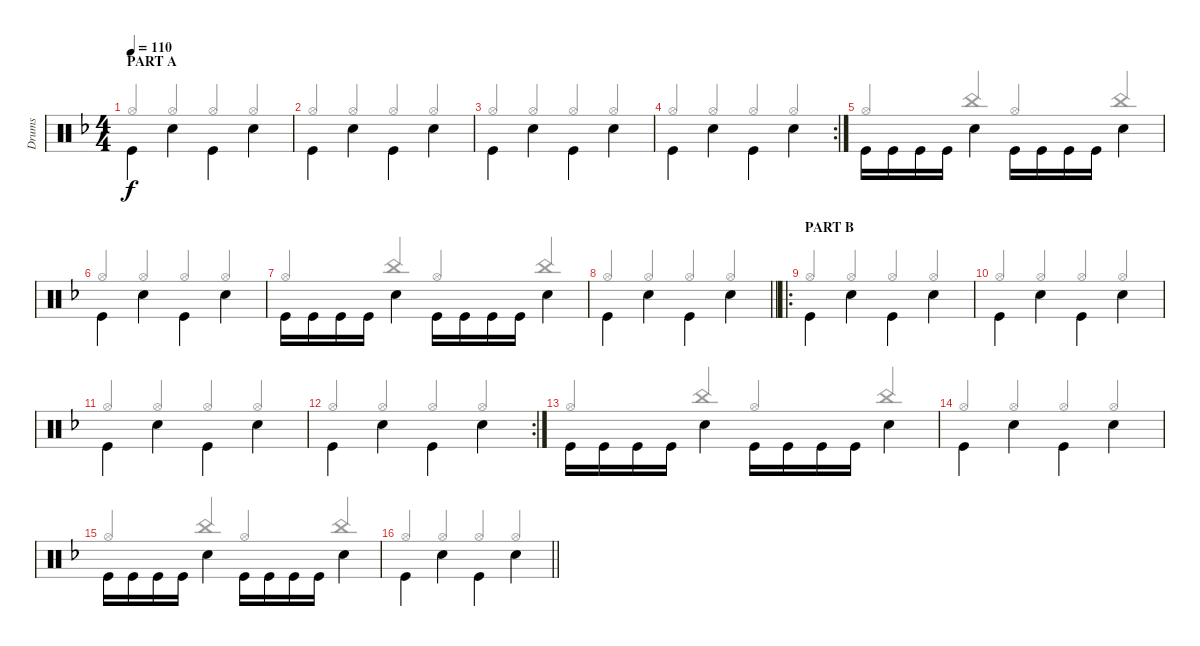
\track ("Drums" "Drums") {instrument percussion}
\staff {score}
\articulation defaults
\voice
\ts (4 4)
\section ("" "PART A")
\tempo 110
\clef neutral
\ks f "Kick (hit)".4{dy f beam Down} "Snare (hit) 2".4{beam Down} "Kick (hit)".4{beam Down} "Snare (hit) 2".4{beam Down}
|
"Kick (hit)".4{beam Down} "Snare (hit) 2".4{beam Down} "Kick (hit)".4{beam Down} "Snare (hit) 2".4{beam Down} |
"Kick (hit)".4{beam Down} "Snare (hit) 2".4{beam Down} "Kick (hit)".4{beam Down} "Snare (hit) 2".4{beam Down} |
\rc 2 "Kick (hit)".4{beam Down} "Snare (hit) 2".4{beam Down} "Kick (hit)".4{beam Down} "Snare (hit) 2".4{beam Down}
|
"Kick (hit)".16{beam Down} "Kick (hit)".16{beam Down} "Kick (hit)".16{beam Down} "Kick (hit)".16{beam Down} "Snare (hit) 2".4{beam Down} "Kick (hit)".16{beam Down} "Kick (hit)".16{beam Down} "Kick (hit)".16{beam Down} "Kick (hit)".16{beam Down} "Snare (hit) 2".4{beam Down} |
"Kick (hit)".4{beam Down} "Snare (hit) 2".4{beam Down} "Kick (hit)".4{beam Down} "Snare (hit) 2".4{beam Down} |
"Kick (hit)".16{beam Down} "Kick (hit)".16{beam Down} "Kick (hit)".16{beam Down} "Kick (hit)".16{beam Down} "Snare (hit) 2".4{beam Down} "Kick (hit)".16{beam Down} "Kick (hit)".16{beam Down} "Kick (hit)".16{beam Down} "Kick (hit)".16{beam Down} "Snare (hit) 2".4{beam Down} |
\barLineRight lightlight "Kick (hit)".4{beam Down} "Snare (hit) 2".4{beam Down} "Kick (hit)".4{beam Down} "Snare (hit) 2".4{beam Down}
|
\ro
\section ("" "PART B")
"Kick (hit)".4{beam Down} "Snare (hit) 2".4{beam Down} "Kick (hit)".4{beam Down} "Snare (hit) 2".4{beam Down} |
"Kick (hit)".4{beam Down} "Snare (hit) 2".4{beam Down} "Kick (hit)".4{beam Down} "Snare (hit) 2".4{beam Down} |
"Kick (hit)".4{beam Down} "Snare (hit) 2".4{beam Down} "Kick (hit)".4{beam Down} "Snare (hit) 2".4{beam Down} |
\rc 2 "Kick (hit)".4{beam Down} "Snare (hit) 2".4{beam Down} "Kick (hit)".4{beam Down} "Snare (hit) 2".4{beam Down}
|
"Kick (hit)".16{beam Down} "Kick (hit)".16{beam Down} "Kick (hit)".16{beam Down} "Kick (hit)".16{beam Down} "Snare (hit) 2".4{beam Down} "Kick (hit)".16{beam Down} "Kick (hit)".16{beam Down} "Kick (hit)".16{beam Down} "Kick (hit)".16{beam Down} "Snare (hit) 2".4{beam Down} |
"Kick (hit)".4{beam Down} "Snare (hit) 2".4{beam Down} "Kick (hit)".4{beam Down} "Snare (hit) 2".4{beam Down} |
"Kick (hit)".16{beam Down} "Kick (hit)".16{beam Down} "Kick (hit)".16{beam Down} "Kick (hit)".16{beam Down} "Snare (hit) 2".4{beam Down} "Kick (hit)".16{beam Down} "Kick (hit)".16{beam Down} "Kick (hit)".16{beam Down} "Kick (hit)".16{beam Down} "Snare (hit) 2".4{beam Down} |
\barLineRight lightlight "Kick (hit)".4{beam Down} "Snare (hit) 2".4{beam Down} "Kick (hit)".4{beam Down} "Snare (hit) 2".4{beam Down}
\voice
\clef neutral
\ottava regular
\simile none
\ks f "Hi-Hat (open)".4{dy f beam Up} "Hi-Hat (open)".4{beam Up} "Hi-Hat (open)".4{beam Up} "Hi-Hat (open)".4{beam Up}
|
"Hi-Hat (open)".4{beam Up} "Hi-Hat (open)".4{beam Up} "Hi-Hat (open)".4{beam Up} "Hi-Hat (open)".4{beam Up} |
"Hi-Hat (open)".4{beam Up} "Hi-Hat (open)".4{beam Up} "Hi-Hat (open)".4{beam Up} "Hi-Hat (open)".4{beam Up} |
"Hi-Hat (open)".4{beam Up} "Hi-Hat (open)".4{beam Up} "Hi-Hat (open)".4{beam Up} "Hi-Hat (open)".4{beam Up} |
"Hi-Hat (open)".4{beam Up} "China (hit)".4{beam Up} "Hi-Hat (open)".4{beam Up} "China (hit)".4{beam Up} |
"Hi-Hat (open)".4{beam Up} "Hi-Hat (open)".4{beam Up} "Hi-Hat (open)".4{beam Up} "Hi-Hat (open)".4{beam Up} |
"Hi-Hat (open)".4{beam Up} "China (hit)".4{beam Up} "Hi-Hat (open)".4{beam Up} "China (hit)".4{beam Up} |
\barLineRight lightlight "Hi-Hat (open)".4{beam Up} "Hi-Hat (open)".4{beam Up} "Hi-Hat (open)".4{beam Up} "Hi-Hat (open)".4{beam Up}
|
"Hi-Hat (open)".4{beam Up} "Hi-Hat (open)".4{beam Up} "Hi-Hat (open)".4{beam Up} "Hi-Hat (open)".4{beam Up} |
"Hi-Hat (open)".4{beam Up} "Hi-Hat (open)".4{beam Up} "Hi-Hat (open)".4{beam Up} "Hi-Hat (open)".4{beam Up} |
"Hi-Hat (open)".4{beam Up} "Hi-Hat (open)".4{beam Up} "Hi-Hat (open)".4{beam Up} "Hi-Hat (open)".4{beam Up} |
"Hi-Hat (open)".4{beam Up} "Hi-Hat (open)".4{beam Up} "Hi-Hat (open)".4{beam Up} "Hi-Hat (open)".4{beam Up} |
"Hi-Hat (open)".4{beam Up} "China (hit)".4{beam Up} "Hi-Hat (open)".4{beam Up} "China (hit)".4{beam Up} |
"Hi-Hat (open)".4{beam Up} "Hi-Hat (open)".4{beam Up} "Hi-Hat (open)".4{beam Up} "Hi-Hat (open)".4{beam Up} |
"Hi-Hat (open)".4{beam Up} "China (hit)".4{beam Up} "Hi-Hat (open)".4{beam Up} "China (hit)".4{beam Up} |
\barLineRight lightlight "Hi-Hat (open)".4{beam Up} "Hi-Hat (open)".4{beam Up} "Hi-Hat (open)".4{beam Up} "Hi-Hat (open)".4{beam Up}
